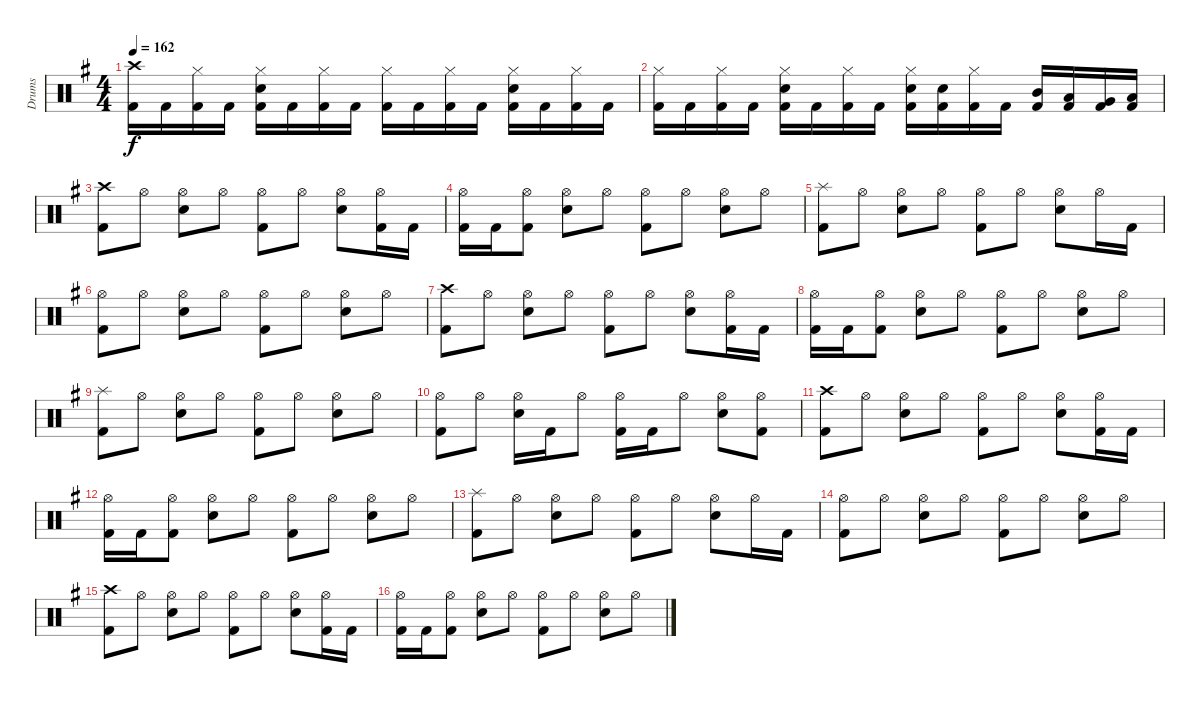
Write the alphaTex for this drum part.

\track ("Drums" "Drums") {instrument percussion}
\staff {score}
\articulation defaults
\ts (4 4)
\tempo 162
\clef neutral
\ks g
("Crash high (hit)" "Kick (hit) 2").16{dy f} "Kick (hit) 2".16 ("Hi-Hat (closed)" "Kick (hit) 2").16 "Kick (hit) 2".16 ("Hi-Hat (closed)" "Electric Snare (hit)" "Kick (hit) 2").16 "Kick (hit) 2".16 ("Hi-Hat (closed)" "Kick (hit) 2").16 "Kick (hit) 2".16 ("Hi-Hat (closed)" "Kick (hit) 2").16 "Kick (hit) 2".16 ("Hi-Hat (closed)" "Kick (hit) 2").16 "Kick (hit) 2".16 ("Hi-Hat (closed)" "Electric Snare (hit)" "Kick (hit) 2").16 "Kick (hit) 2".16 ("Hi-Hat (closed)" "Kick (hit) 2").16 "Kick (hit) 2".16 |
("Hi-Hat (closed)" "Kick (hit) 2").16 "Kick (hit) 2".16 ("Hi-Hat (closed)" "Kick (hit) 2").16 "Kick (hit) 2".16 ("Hi-Hat (closed)" "Electric Snare (hit)" "Kick (hit) 2").16 "Kick (hit) 2".16 ("Hi-Hat (closed)" "Kick (hit) 2").16 "Kick (hit) 2".16 ("Hi-Hat (closed)" "Electric Snare (hit)" "Kick (hit) 2").16 ("Electric Snare (hit)" "Kick (hit) 2").16 ("Hi-Hat (closed)" "Kick (hit) 2").16 "Kick (hit) 2".16 ("Mid Tom (hit)" "Kick (hit) 2").16 ("Low Tom (hit)" "Kick (hit) 2").16 ("Very Low Tom (hit)" "Kick (hit) 2").16 ("Low Floor Tom (hit)" "Kick (hit) 2").16 |
("Crash high (hit)" "Kick (hit) 2").8 "Hi-Hat (open)".8 ("Hi-Hat (open)" "Electric Snare (hit)").8 "Hi-Hat (open)".8 ("Hi-Hat (open)" "Kick (hit) 2").8 "Hi-Hat (open)".8 ("Hi-Hat (open)" "Electric Snare (hit)").8 ("Hi-Hat (open)" "Kick (hit) 2").16 "Kick (hit) 2".16 |
("Hi-Hat (open)" "Kick (hit) 2").16 "Kick (hit) 2".16 ("Hi-Hat (open)" "Kick (hit) 2").8 ("Hi-Hat (open)" "Electric Snare (hit)").8 "Hi-Hat (open)".8 ("Hi-Hat (open)" "Kick (hit) 2").8 "Hi-Hat (open)".8 ("Hi-Hat (open)" "Electric Snare (hit)").8 "Hi-Hat (open)".8 |
("Splash (hit)" "Kick (hit) 2").8 "Hi-Hat (open)".8 ("Hi-Hat (open)" "Electric Snare (hit)").8 "Hi-Hat (open)".8 ("Hi-Hat (open)" "Kick (hit) 2").8 "Hi-Hat (open)".8 ("Hi-Hat (open)" "Electric Snare (hit)").8 "Hi-Hat (open)".16 "Kick (hit) 2".16 |
("Hi-Hat (open)" "Kick (hit) 2").8 "Hi-Hat (open)".8 ("Hi-Hat (open)" "Electric Snare (hit)").8 "Hi-Hat (open)".8 ("Hi-Hat (open)" "Kick (hit) 2").8 "Hi-Hat (open)".8 ("Hi-Hat (open)" "Electric Snare (hit)").8 "Hi-Hat (open)".8 |
("Crash high (hit)" "Kick (hit) 2").8 "Hi-Hat (open)".8 ("Hi-Hat (open)" "Electric Snare (hit)").8 "Hi-Hat (open)".8 ("Hi-Hat (open)" "Kick (hit) 2").8 "Hi-Hat (open)".8 ("Hi-Hat (open)" "Electric Snare (hit)").8 ("Hi-Hat (open)" "Kick (hit) 2").16 "Kick (hit) 2".16 |
("Hi-Hat (open)" "Kick (hit) 2").16 "Kick (hit) 2".16 ("Hi-Hat (open)" "Kick (hit) 2").8 ("Hi-Hat (open)" "Electric Snare (hit)").8 "Hi-Hat (open)".8 ("Hi-Hat (open)" "Kick (hit) 2").8 "Hi-Hat (open)".8 ("Hi-Hat (open)" "Electric Snare (hit)").8 "Hi-Hat (open)".8 |
("Splash (hit)" "Kick (hit) 2").8 "Hi-Hat (open)".8 ("Hi-Hat (open)" "Electric Snare (hit)").8 "Hi-Hat (open)".8 ("Hi-Hat (open)" "Kick (hit) 2").8 "Hi-Hat (open)".8 ("Hi-Hat (open)" "Electric Snare (hit)").8 "Hi-Hat (open)".8 |
("Hi-Hat (open)" "Kick (hit) 2").8 "Hi-Hat (open)".8 ("Hi-Hat (open)" "Electric Snare (hit)").16 "Kick (hit) 2".16 "Hi-Hat (open)".8 ("Hi-Hat (open)" "Kick (hit) 2").16 "Kick (hit) 2".16 "Hi-Hat (open)".8 ("Hi-Hat (open)" "Electric Snare (hit)").8 ("Hi-Hat (open)" "Kick (hit) 2").8 |
("Crash high (hit)" "Kick (hit) 2").8 "Hi-Hat (open)".8 ("Hi-Hat (open)" "Electric Snare (hit)").8 "Hi-Hat (open)".8 ("Hi-Hat (open)" "Kick (hit) 2").8 "Hi-Hat (open)".8 ("Hi-Hat (open)" "Electric Snare (hit)").8 ("Hi-Hat (open)" "Kick (hit) 2").16 "Kick (hit) 2".16 |
("Hi-Hat (open)" "Kick (hit) 2").16 "Kick (hit) 2".16 ("Hi-Hat (open)" "Kick (hit) 2").8 ("Hi-Hat (open)" "Electric Snare (hit)").8 "Hi-Hat (open)".8 ("Hi-Hat (open)" "Kick (hit) 2").8 "Hi-Hat (open)".8 ("Hi-Hat (open)" "Electric Snare (hit)").8 "Hi-Hat (open)".8 |
("Splash (hit)" "Kick (hit) 2").8 "Hi-Hat (open)".8 ("Hi-Hat (open)" "Electric Snare (hit)").8 "Hi-Hat (open)".8 ("Hi-Hat (open)" "Kick (hit) 2").8 "Hi-Hat (open)".8 ("Hi-Hat (open)" "Electric Snare (hit)").8 "Hi-Hat (open)".16 "Kick (hit) 2".16 |
("Hi-Hat (open)" "Kick (hit) 2").8 "Hi-Hat (open)".8 ("Hi-Hat (open)" "Electric Snare (hit)").8 "Hi-Hat (open)".8 ("Hi-Hat (open)" "Kick (hit) 2").8 "Hi-Hat (open)".8 ("Hi-Hat (open)" "Electric Snare (hit)").8 "Hi-Hat (open)".8 |
("Crash high (hit)" "Kick (hit) 2").8 "Hi-Hat (open)".8 ("Hi-Hat (open)" "Electric Snare (hit)").8 "Hi-Hat (open)".8 ("Hi-Hat (open)" "Kick (hit) 2").8 "Hi-Hat (open)".8 ("Hi-Hat (open)" "Electric Snare (hit)").8 ("Hi-Hat (open)" "Kick (hit) 2").16 "Kick (hit) 2".16 |
("Hi-Hat (open)" "Kick (hit) 2").16 "Kick (hit) 2".16 ("Hi-Hat (open)" "Kick (hit) 2").8 ("Hi-Hat (open)" "Electric Snare (hit)").8 "Hi-Hat (open)".8 ("Hi-Hat (open)" "Kick (hit) 2").8 "Hi-Hat (open)".8 ("Hi-Hat (open)" "Electric Snare (hit)").8 "Hi-Hat (open)".8
